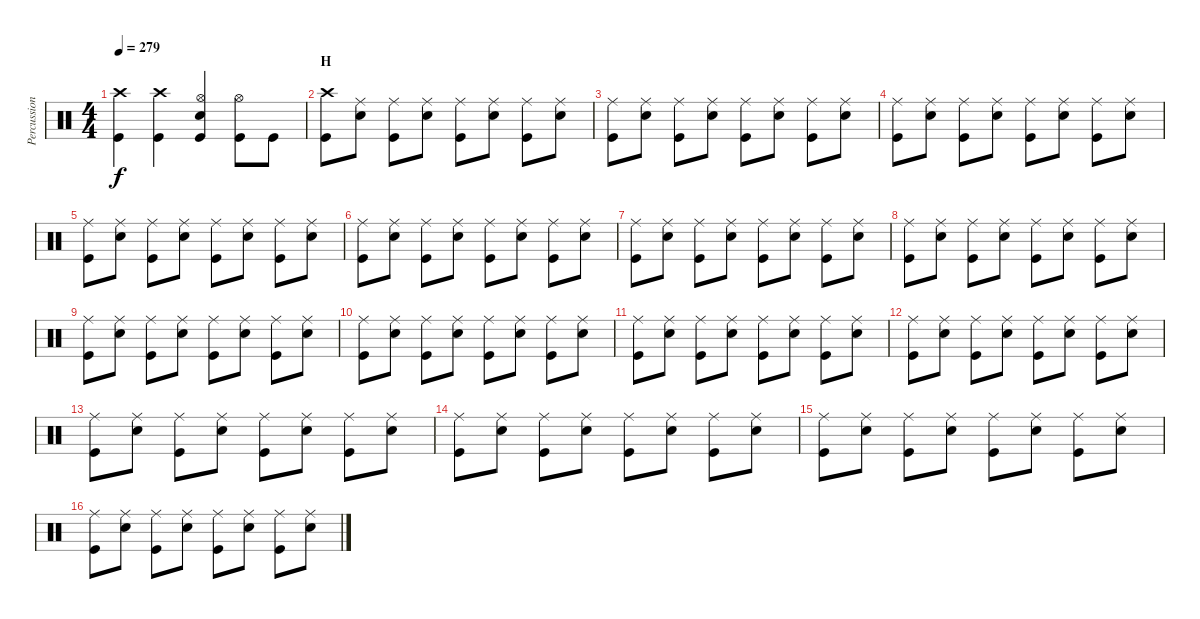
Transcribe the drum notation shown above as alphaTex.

\track ("Percussion" "Percussion") {instrument percussion}
\staff {score}
\articulation defaults
\ts (4 4)
\tempo 279
\clef neutral
\ks c
("Crash high (hit)" "Kick (hit)").4{dy f} ("Crash high (hit)" "Kick (hit)").4 ("Hi-Hat (open)" "Snare (hit) 2" "Kick (hit)").4 ("Hi-Hat (open)" "Kick (hit)").8 "Kick (hit)".8 |
\section ("" "H")
("Crash high (hit)" "Kick (hit)").8 ("Ride (middle)" "Snare (hit) 2").8 ("Ride (middle)" "Kick (hit)").8 ("Ride (middle)" "Snare (hit) 2").8 ("Ride (middle)" "Kick (hit)").8 ("Ride (middle)" "Snare (hit) 2").8 ("Ride (middle)" "Kick (hit)").8 ("Ride (middle)" "Snare (hit) 2").8 |
("Ride (middle)" "Kick (hit)").8 ("Ride (middle)" "Snare (hit) 2").8 ("Ride (middle)" "Kick (hit)").8 ("Ride (middle)" "Snare (hit) 2").8 ("Ride (middle)" "Kick (hit)").8 ("Ride (middle)" "Snare (hit) 2").8 ("Ride (middle)" "Kick (hit)").8 ("Ride (middle)" "Snare (hit) 2").8 |
("Ride (middle)" "Kick (hit)").8 ("Ride (middle)" "Snare (hit) 2").8 ("Ride (middle)" "Kick (hit)").8 ("Ride (middle)" "Snare (hit) 2").8 ("Ride (middle)" "Kick (hit)").8 ("Ride (middle)" "Snare (hit) 2").8 ("Ride (middle)" "Kick (hit)").8 ("Ride (middle)" "Snare (hit) 2").8 |
("Ride (middle)" "Kick (hit)").8 ("Ride (middle)" "Snare (hit) 2").8 ("Ride (middle)" "Kick (hit)").8 ("Ride (middle)" "Snare (hit) 2").8 ("Ride (middle)" "Kick (hit)").8 ("Ride (middle)" "Snare (hit) 2").8 ("Ride (middle)" "Kick (hit)").8 ("Ride (middle)" "Snare (hit) 2").8 |
("Ride (middle)" "Kick (hit)").8 ("Ride (middle)" "Snare (hit) 2").8 ("Ride (middle)" "Kick (hit)").8 ("Ride (middle)" "Snare (hit) 2").8 ("Ride (middle)" "Kick (hit)").8 ("Ride (middle)" "Snare (hit) 2").8 ("Ride (middle)" "Kick (hit)").8 ("Ride (middle)" "Snare (hit) 2").8 |
("Ride (middle)" "Kick (hit)").8 ("Ride (middle)" "Snare (hit) 2").8 ("Ride (middle)" "Kick (hit)").8 ("Ride (middle)" "Snare (hit) 2").8 ("Ride (middle)" "Kick (hit)").8 ("Ride (middle)" "Snare (hit) 2").8 ("Ride (middle)" "Kick (hit)").8 ("Ride (middle)" "Snare (hit) 2").8 |
("Ride (middle)" "Kick (hit)").8 ("Ride (middle)" "Snare (hit) 2").8 ("Ride (middle)" "Kick (hit)").8 ("Ride (middle)" "Snare (hit) 2").8 ("Ride (middle)" "Kick (hit)").8 ("Ride (middle)" "Snare (hit) 2").8 ("Ride (middle)" "Kick (hit)").8 ("Ride (middle)" "Snare (hit) 2").8 |
("Ride (middle)" "Kick (hit)").8 ("Ride (middle)" "Snare (hit) 2").8 ("Ride (middle)" "Kick (hit)").8 ("Ride (middle)" "Snare (hit) 2").8 ("Ride (middle)" "Kick (hit)").8 ("Ride (middle)" "Snare (hit) 2").8 ("Ride (middle)" "Kick (hit)").8 ("Ride (middle)" "Snare (hit) 2").8 |
("Ride (middle)" "Kick (hit)").8 ("Ride (middle)" "Snare (hit) 2").8 ("Ride (middle)" "Kick (hit)").8 ("Ride (middle)" "Snare (hit) 2").8 ("Ride (middle)" "Kick (hit)").8 ("Ride (middle)" "Snare (hit) 2").8 ("Ride (middle)" "Kick (hit)").8 ("Ride (middle)" "Snare (hit) 2").8 |
("Ride (middle)" "Kick (hit)").8 ("Ride (middle)" "Snare (hit) 2").8 ("Ride (middle)" "Kick (hit)").8 ("Ride (middle)" "Snare (hit) 2").8 ("Ride (middle)" "Kick (hit)").8 ("Ride (middle)" "Snare (hit) 2").8 ("Ride (middle)" "Kick (hit)").8 ("Ride (middle)" "Snare (hit) 2").8 |
("Ride (middle)" "Kick (hit)").8 ("Ride (middle)" "Snare (hit) 2").8 ("Ride (middle)" "Kick (hit)").8 ("Ride (middle)" "Snare (hit) 2").8 ("Ride (middle)" "Kick (hit)").8 ("Ride (middle)" "Snare (hit) 2").8 ("Ride (middle)" "Kick (hit)").8 ("Ride (middle)" "Snare (hit) 2").8 |
("Ride (middle)" "Kick (hit)").8 ("Ride (middle)" "Snare (hit) 2").8 ("Ride (middle)" "Kick (hit)").8 ("Ride (middle)" "Snare (hit) 2").8 ("Ride (middle)" "Kick (hit)").8 ("Ride (middle)" "Snare (hit) 2").8 ("Ride (middle)" "Kick (hit)").8 ("Ride (middle)" "Snare (hit) 2").8 |
("Ride (middle)" "Kick (hit)").8 ("Ride (middle)" "Snare (hit) 2").8 ("Ride (middle)" "Kick (hit)").8 ("Ride (middle)" "Snare (hit) 2").8 ("Ride (middle)" "Kick (hit)").8 ("Ride (middle)" "Snare (hit) 2").8 ("Ride (middle)" "Kick (hit)").8 ("Ride (middle)" "Snare (hit) 2").8 |
("Ride (middle)" "Kick (hit)").8 ("Ride (middle)" "Snare (hit) 2").8 ("Ride (middle)" "Kick (hit)").8 ("Ride (middle)" "Snare (hit) 2").8 ("Ride (middle)" "Kick (hit)").8 ("Ride (middle)" "Snare (hit) 2").8 ("Ride (middle)" "Kick (hit)").8 ("Ride (middle)" "Snare (hit) 2").8 |
("Ride (middle)" "Kick (hit)").8 ("Ride (middle)" "Snare (hit) 2").8 ("Ride (middle)" "Kick (hit)").8 ("Ride (middle)" "Snare (hit) 2").8 ("Ride (middle)" "Kick (hit)").8 ("Ride (middle)" "Snare (hit) 2").8 ("Ride (middle)" "Kick (hit)").8 ("Ride (middle)" "Snare (hit) 2").8
